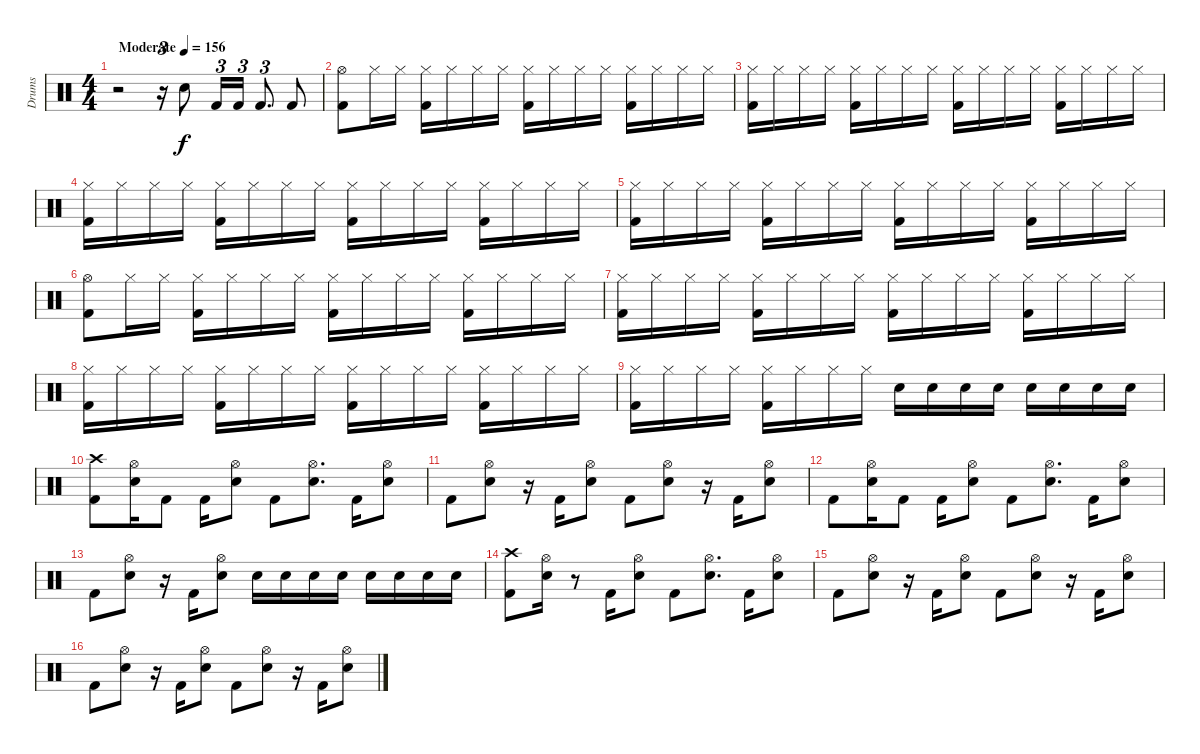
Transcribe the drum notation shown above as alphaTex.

\track ("Drums" "Drums") {instrument percussion}
\staff {score}
\articulation defaults
\ts (4 4)
\tempo (156 "Moderate")
\clef neutral
\ks c
r.2{dy f} r.16{tu (3 2)} "Electric Snare (hit)".8 "Kick (hit) 2".16{tu (3 2)} "Kick (hit) 2".16{tu (3 2)} "Kick (hit) 2".8{d tu (3 2)} "Kick (hit) 2".8 |
("Hi-Hat (open)" "Kick (hit) 2").8 "Hi-Hat (closed)".16 "Hi-Hat (closed)".16 ("Hi-Hat (closed)" "Kick (hit) 2").16 "Hi-Hat (closed)".16 "Hi-Hat (closed)".16 "Hi-Hat (closed)".16 ("Hi-Hat (closed)" "Kick (hit) 2").16 "Hi-Hat (closed)".16 "Hi-Hat (closed)".16 "Hi-Hat (closed)".16 ("Hi-Hat (closed)" "Kick (hit) 2").16 "Hi-Hat (closed)".16 "Hi-Hat (closed)".16 "Hi-Hat (closed)".16 |
("Hi-Hat (closed)" "Kick (hit) 2").16 "Hi-Hat (closed)".16 "Hi-Hat (closed)".16 "Hi-Hat (closed)".16 ("Hi-Hat (closed)" "Kick (hit) 2").16 "Hi-Hat (closed)".16 "Hi-Hat (closed)".16 "Hi-Hat (closed)".16 ("Hi-Hat (closed)" "Kick (hit) 2").16 "Hi-Hat (closed)".16 "Hi-Hat (closed)".16 "Hi-Hat (closed)".16 ("Hi-Hat (closed)" "Kick (hit) 2").16 "Hi-Hat (closed)".16 "Hi-Hat (closed)".16 "Hi-Hat (closed)".16 |
("Hi-Hat (closed)" "Kick (hit) 2").16 "Hi-Hat (closed)".16 "Hi-Hat (closed)".16 "Hi-Hat (closed)".16 ("Hi-Hat (closed)" "Kick (hit) 2").16 "Hi-Hat (closed)".16 "Hi-Hat (closed)".16 "Hi-Hat (closed)".16 ("Hi-Hat (closed)" "Kick (hit) 2").16 "Hi-Hat (closed)".16 "Hi-Hat (closed)".16 "Hi-Hat (closed)".16 ("Hi-Hat (closed)" "Kick (hit) 2").16 "Hi-Hat (closed)".16 "Hi-Hat (closed)".16 "Hi-Hat (closed)".16 |
("Hi-Hat (closed)" "Kick (hit) 2").16 "Hi-Hat (closed)".16 "Hi-Hat (closed)".16 "Hi-Hat (closed)".16 ("Hi-Hat (closed)" "Kick (hit) 2").16 "Hi-Hat (closed)".16 "Hi-Hat (closed)".16 "Hi-Hat (closed)".16 ("Hi-Hat (closed)" "Kick (hit) 2").16 "Hi-Hat (closed)".16 "Hi-Hat (closed)".16 "Hi-Hat (closed)".16 ("Hi-Hat (closed)" "Kick (hit) 2").16 "Hi-Hat (closed)".16 "Hi-Hat (closed)".16 "Hi-Hat (closed)".16 |
("Hi-Hat (open)" "Kick (hit) 2").8 "Hi-Hat (closed)".16 "Hi-Hat (closed)".16 ("Hi-Hat (closed)" "Kick (hit) 2").16 "Hi-Hat (closed)".16 "Hi-Hat (closed)".16 "Hi-Hat (closed)".16 ("Hi-Hat (closed)" "Kick (hit) 2").16 "Hi-Hat (closed)".16 "Hi-Hat (closed)".16 "Hi-Hat (closed)".16 ("Hi-Hat (closed)" "Kick (hit) 2").16 "Hi-Hat (closed)".16 "Hi-Hat (closed)".16 "Hi-Hat (closed)".16 |
("Hi-Hat (closed)" "Kick (hit) 2").16 "Hi-Hat (closed)".16 "Hi-Hat (closed)".16 "Hi-Hat (closed)".16 ("Hi-Hat (closed)" "Kick (hit) 2").16 "Hi-Hat (closed)".16 "Hi-Hat (closed)".16 "Hi-Hat (closed)".16 ("Hi-Hat (closed)" "Kick (hit) 2").16 "Hi-Hat (closed)".16 "Hi-Hat (closed)".16 "Hi-Hat (closed)".16 ("Hi-Hat (closed)" "Kick (hit) 2").16 "Hi-Hat (closed)".16 "Hi-Hat (closed)".16 "Hi-Hat (closed)".16 |
("Hi-Hat (closed)" "Kick (hit) 2").16 "Hi-Hat (closed)".16 "Hi-Hat (closed)".16 "Hi-Hat (closed)".16 ("Hi-Hat (closed)" "Kick (hit) 2").16 "Hi-Hat (closed)".16 "Hi-Hat (closed)".16 "Hi-Hat (closed)".16 ("Hi-Hat (closed)" "Kick (hit) 2").16 "Hi-Hat (closed)".16 "Hi-Hat (closed)".16 "Hi-Hat (closed)".16 ("Hi-Hat (closed)" "Kick (hit) 2").16 "Hi-Hat (closed)".16 "Hi-Hat (closed)".16 "Hi-Hat (closed)".16 |
("Hi-Hat (closed)" "Kick (hit) 2").16 "Hi-Hat (closed)".16 "Hi-Hat (closed)".16 "Hi-Hat (closed)".16 ("Hi-Hat (closed)" "Kick (hit) 2").16 "Hi-Hat (closed)".16 "Hi-Hat (closed)".16 "Hi-Hat (closed)".16 "Electric Snare (hit)".16 "Electric Snare (hit)".16 "Electric Snare (hit)".16 "Electric Snare (hit)".16 "Electric Snare (hit)".16 "Electric Snare (hit)".16 "Electric Snare (hit)".16 "Electric Snare (hit)".16 |
("Crash high (hit)" "Kick (hit) 2").8 ("Hi-Hat (open)" "Electric Snare (hit)").16 "Kick (hit) 2".8 "Kick (hit) 2".16 ("Hi-Hat (open)" "Electric Snare (hit)").8 "Kick (hit) 2".8 ("Hi-Hat (open)" "Electric Snare (hit)").8{d} "Kick (hit) 2".16 ("Hi-Hat (open)" "Electric Snare (hit)").8 |
"Kick (hit) 2".8 ("Hi-Hat (open)" "Electric Snare (hit)").8 r.16 "Kick (hit) 2".16 ("Hi-Hat (open)" "Electric Snare (hit)").8 "Kick (hit) 2".8 ("Hi-Hat (open)" "Electric Snare (hit)").8 r.16 "Kick (hit) 2".16 ("Hi-Hat (open)" "Electric Snare (hit)").8 |
"Kick (hit) 2".8 ("Hi-Hat (open)" "Electric Snare (hit)").16 "Kick (hit) 2".8 "Kick (hit) 2".16 ("Hi-Hat (open)" "Electric Snare (hit)").8 "Kick (hit) 2".8 ("Hi-Hat (open)" "Electric Snare (hit)").8{d} "Kick (hit) 2".16 ("Hi-Hat (open)" "Electric Snare (hit)").8 |
"Kick (hit) 2".8 ("Hi-Hat (open)" "Electric Snare (hit)").8 r.16 "Kick (hit) 2".16 ("Hi-Hat (open)" "Electric Snare (hit)").8 "Electric Snare (hit)".16 "Electric Snare (hit)".16 "Electric Snare (hit)".16 "Electric Snare (hit)".16 "Electric Snare (hit)".16 "Electric Snare (hit)".16 "Electric Snare (hit)".16 "Electric Snare (hit)".16 |
("Crash high (hit)" "Kick (hit) 2").8 ("Hi-Hat (open)" "Electric Snare (hit)").16 r.8 "Kick (hit) 2".16 ("Hi-Hat (open)" "Electric Snare (hit)").8 "Kick (hit) 2".8 ("Hi-Hat (open)" "Electric Snare (hit)").8{d} "Kick (hit) 2".16 ("Hi-Hat (open)" "Electric Snare (hit)").8 |
"Kick (hit) 2".8 ("Hi-Hat (open)" "Electric Snare (hit)").8 r.16 "Kick (hit) 2".16 ("Hi-Hat (open)" "Electric Snare (hit)").8 "Kick (hit) 2".8 ("Hi-Hat (open)" "Electric Snare (hit)").8 r.16 "Kick (hit) 2".16 ("Hi-Hat (open)" "Electric Snare (hit)").8 |
"Kick (hit) 2".8 ("Hi-Hat (open)" "Electric Snare (hit)").8 r.16 "Kick (hit) 2".16 ("Hi-Hat (open)" "Electric Snare (hit)").8 "Kick (hit) 2".8 ("Hi-Hat (open)" "Electric Snare (hit)").8 r.16 "Kick (hit) 2".16 ("Hi-Hat (open)" "Electric Snare (hit)").8
